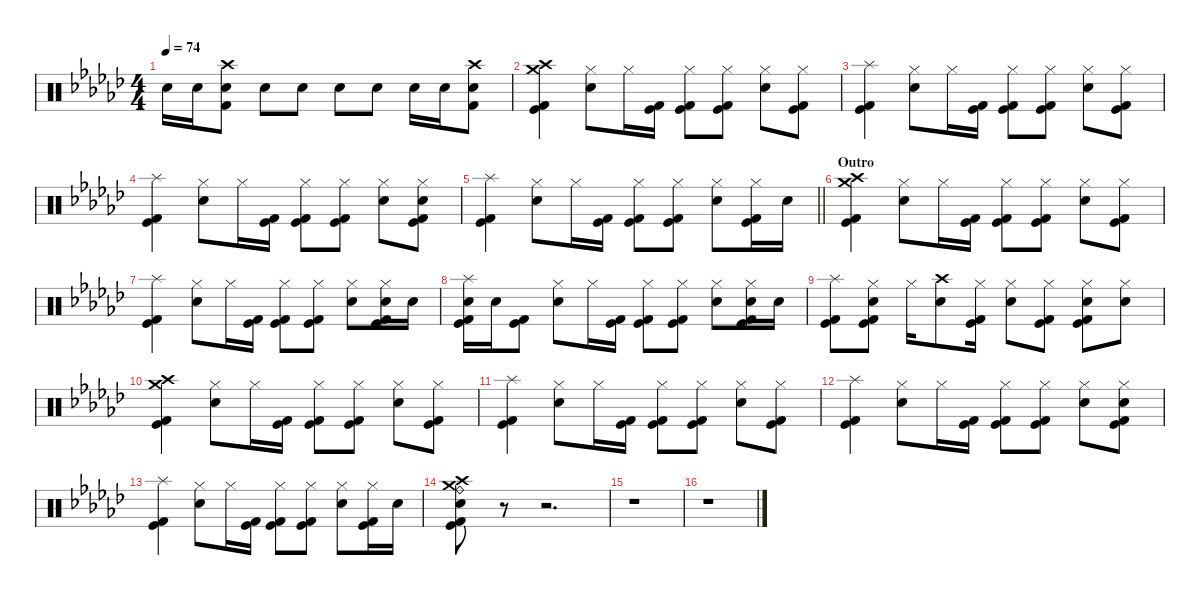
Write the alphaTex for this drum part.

\defaultSystemsLayout 4
\hideDynamics
\bracketExtendMode nobrackets
\singleTrackTrackNamePolicy hidden
\multiTrackTrackNamePolicy hidden
\firstSystemTrackNameMode fullname
\firstSystemTrackNameOrientation horizontal
\otherSystemsTrackNameOrientation horizontal
\track ("Drums, Ulrich" "drm.") {defaultSystemsLayout 4 instrument percussion}
\staff {score}
\articulation defaults
\ts (4 4)
\tempo 74
\clef neutral
\ks ebminor "Snare (hit) 2"{acc forcenatural}.16{dy f beam Down} "Snare (hit) 2"{acc forcenatural}.16{beam Down}
("Crash high (hit)"{acc forcenatural} "Kick (hit) 2"{acc forcenatural} "Snare (hit) 2"{acc forcenatural}).8{beam Down} "Snare (hit) 2"{acc forcenatural}.8{beam Down} "Snare (hit) 2"{acc forcenatural}.8{beam Down} "Snare (hit) 2"{acc forcenatural}.8{beam Down} "Snare (hit) 2"{acc forcenatural}.8{beam Down} "Snare (hit) 2"{acc forcenatural}.16{beam Down} "Snare (hit) 2"{acc forcenatural}.16{beam Down} ("Crash high (hit)"{acc forcenatural} "Kick (hit) 2"{acc forcenatural} "Snare (hit) 2"{acc forcenatural}).8{beam Down} |
("Crash medium (hit)"{acc forcenatural} "Crash high (hit)"{acc forcenatural} "Kick (hit) 2"{acc forcenatural} "Kick (hit)"{acc forcenatural}).4{beam Down} ("Hi-Hat (closed)"{acc forcenatural} "Snare (hit) 2"{acc forcenatural}).8{beam Down} "Hi-Hat (closed)"{acc forcenatural}.16{beam Down} ("Kick (hit) 2"{acc forcenatural} "Kick (hit)"{acc forcenatural}).16{beam Down} ("Hi-Hat (closed)"{acc forcenatural} "Kick (hit) 2"{acc forcenatural} "Kick (hit)"{acc forcenatural}).8{beam Down} ("Hi-Hat (closed)"{acc forcenatural} "Kick (hit)"{acc forcenatural} "Kick (hit) 2"{acc forcenatural}).8{beam Down} ("Hi-Hat (closed)"{acc forcenatural} "Snare (hit) 2"{acc forcenatural}).8{beam Down} ("Hi-Hat (closed)"{acc forcenatural} "Kick (hit) 2"{acc forcenatural} "Kick (hit)"{acc forcenatural}).8{beam Down} |
("Splash (hit)"{acc forcenatural} "Kick (hit) 2"{acc forcenatural} "Kick (hit)"{acc forcenatural}).4{beam Down} ("Hi-Hat (closed)"{acc forcenatural} "Snare (hit) 2"{acc forcenatural}).8{beam Down} "Hi-Hat (closed)"{acc forcenatural}.16{beam Down} ("Kick (hit) 2"{acc forcenatural} "Kick (hit)"{acc forcenatural}).16{beam Down} ("Hi-Hat (closed)"{acc forcenatural} "Kick (hit) 2"{acc forcenatural} "Kick (hit)"{acc forcenatural}).8{beam Down} ("Hi-Hat (closed)"{acc forcenatural} "Kick (hit)"{acc forcenatural} "Kick (hit) 2"{acc forcenatural}).8{beam Down} ("Hi-Hat (closed)"{acc forcenatural} "Snare (hit) 2"{acc forcenatural}).8{beam Down} ("Hi-Hat (closed)"{acc forcenatural} "Kick (hit) 2"{acc forcenatural} "Kick (hit)"{acc forcenatural}).8{beam Down} |
("Splash (hit)"{acc forcenatural} "Kick (hit) 2"{acc forcenatural} "Kick (hit)"{acc forcenatural}).4{beam Down} ("Hi-Hat (closed)"{acc forcenatural} "Snare (hit) 2"{acc forcenatural}).8{beam Down} "Hi-Hat (closed)"{acc forcenatural}.16{beam Down} ("Kick (hit) 2"{acc forcenatural} "Kick (hit)"{acc forcenatural}).16{beam Down} ("Hi-Hat (closed)"{acc forcenatural} "Kick (hit) 2"{acc forcenatural} "Kick (hit)"{acc forcenatural}).8{beam Down} ("Hi-Hat (closed)"{acc forcenatural} "Kick (hit)"{acc forcenatural} "Kick (hit) 2"{acc forcenatural}).8{beam Down} ("Hi-Hat (closed)"{acc forcenatural} "Snare (hit) 2"{acc forcenatural}).8{beam Down} ("Hi-Hat (closed)"{acc forcenatural} "Snare (hit) 2"{acc forcenatural} "Kick (hit) 2"{acc forcenatural} "Kick (hit)"{acc forcenatural}).8{beam Down} |
\barLineRight lightlight
("Splash (hit)"{acc forcenatural} "Kick (hit) 2"{acc forcenatural} "Kick (hit)"{acc forcenatural}).4{beam Down} ("Hi-Hat (closed)"{acc forcenatural} "Snare (hit) 2"{acc forcenatural}).8{beam Down} "Hi-Hat (closed)"{acc forcenatural}.16{beam Down} ("Kick (hit) 2"{acc forcenatural} "Kick (hit)"{acc forcenatural}).16{beam Down} ("Hi-Hat (closed)"{acc forcenatural} "Kick (hit) 2"{acc forcenatural} "Kick (hit)"{acc forcenatural}).8{beam Down} ("Hi-Hat (closed)"{acc forcenatural} "Kick (hit)"{acc forcenatural} "Kick (hit) 2"{acc forcenatural}).8{beam Down} ("Hi-Hat (closed)"{acc forcenatural} "Snare (hit) 2"{acc forcenatural}).8{beam Down} ("Hi-Hat (closed)"{acc forcenatural} "Kick (hit) 2"{acc forcenatural} "Kick (hit)"{acc forcenatural}).16{beam Down} "Snare (hit) 2"{acc forcenatural}.16{beam Down} |
\section ("" "Outro")
("Crash medium (hit)"{acc forcenatural} "Crash high (hit)"{acc forcenatural} "Kick (hit) 2"{acc forcenatural} "Kick (hit)"{acc forcenatural}).4{beam Down} ("Hi-Hat (closed)"{acc forcenatural} "Snare (hit) 2"{acc forcenatural}).8{beam Down} "Hi-Hat (closed)"{acc forcenatural}.16{beam Down} ("Kick (hit) 2"{acc forcenatural} "Kick (hit)"{acc forcenatural}).16{beam Down} ("Hi-Hat (closed)"{acc forcenatural} "Kick (hit) 2"{acc forcenatural} "Kick (hit)"{acc forcenatural}).8{beam Down} ("Hi-Hat (closed)"{acc forcenatural} "Kick (hit)"{acc forcenatural} "Kick (hit) 2"{acc forcenatural}).8{beam Down} ("Hi-Hat (closed)"{acc forcenatural} "Snare (hit) 2"{acc forcenatural}).8{beam Down} ("Hi-Hat (closed)"{acc forcenatural} "Kick (hit) 2"{acc forcenatural} "Kick (hit)"{acc forcenatural}).8{beam Down} |
("Splash (hit)"{acc forcenatural} "Kick (hit) 2"{acc forcenatural} "Kick (hit)"{acc forcenatural}).4{beam Down} ("Hi-Hat (closed)"{acc forcenatural} "Snare (hit) 2"{acc forcenatural}).8{beam Down} "Hi-Hat (closed)"{acc forcenatural}.16{beam Down} ("Kick (hit) 2"{acc forcenatural} "Kick (hit)"{acc forcenatural}).16{beam Down} ("Hi-Hat (closed)"{acc forcenatural} "Kick (hit) 2"{acc forcenatural} "Kick (hit)"{acc forcenatural}).8{beam Down} ("Hi-Hat (closed)"{acc forcenatural} "Kick (hit)"{acc forcenatural} "Kick (hit) 2"{acc forcenatural}).8{beam Down} ("Hi-Hat (closed)"{acc forcenatural} "Snare (hit) 2"{acc forcenatural}).8{beam Down} ("Hi-Hat (closed)"{acc forcenatural} "Snare (hit) 2"{acc forcenatural} "Kick (hit) 2"{acc forcenatural} "Kick (hit)"{acc forcenatural}).16{beam Down} "Snare (hit) 2"{acc forcenatural}.16{beam Down} |
("Splash (hit)"{acc forcenatural} "Snare (hit) 2"{acc forcenatural} "Kick (hit) 2"{acc forcenatural} "Kick (hit)"{acc forcenatural}).16{beam Down} "Snare (hit) 2"{acc forcenatural}.16{beam Down} ("Kick (hit) 2"{acc forcenatural} "Kick (hit)"{acc forcenatural}).8{beam Down} ("Hi-Hat (closed)"{acc forcenatural} "Snare (hit) 2"{acc forcenatural}).8{beam Down} "Hi-Hat (closed)"{acc forcenatural}.16{beam Down} ("Kick (hit) 2"{acc forcenatural} "Kick (hit)"{acc forcenatural}).16{beam Down} ("Hi-Hat (closed)"{acc forcenatural} "Kick (hit) 2"{acc forcenatural} "Kick (hit)"{acc forcenatural}).8{beam Down} ("Hi-Hat (closed)"{acc forcenatural} "Kick (hit)"{acc forcenatural} "Kick (hit) 2"{acc forcenatural}).8{beam Down} ("Hi-Hat (closed)"{acc forcenatural} "Snare (hit) 2"{acc forcenatural}).8{beam Down} ("Hi-Hat (closed)"{acc forcenatural} "Snare (hit) 2"{acc forcenatural} "Kick (hit) 2"{acc forcenatural} "Kick (hit)"{acc forcenatural}).16{beam Down} "Snare (hit) 2"{acc forcenatural}.16{beam Down} |
("Splash (hit)"{acc forcenatural} "Kick (hit) 2"{acc forcenatural} "Kick (hit)"{acc forcenatural}).8{beam Down} ("Hi-Hat (closed)"{acc forcenatural} "Snare (hit) 2"{acc forcenatural} "Kick (hit) 2"{acc forcenatural} "Kick (hit)"{acc forcenatural}).8{beam Down} "Hi-Hat (closed)"{acc forcenatural}.16{beam Down} ("Crash high (hit)"{acc forcenatural} "Snare (hit) 2"{acc forcenatural}).8{beam Down} ("Hi-Hat (closed)"{acc forcenatural} "Kick (hit)"{acc forcenatural} "Kick (hit) 2"{acc forcenatural}).16{beam Down} ("Hi-Hat (closed)"{acc forcenatural} "Snare (hit) 2"{acc forcenatural}).8{beam Down} ("Hi-Hat (closed)"{acc forcenatural} "Kick (hit) 2"{acc forcenatural} "Kick (hit)"{acc forcenatural}).8{beam Down} ("Hi-Hat (closed)"{acc forcenatural} "Snare (hit) 2"{acc forcenatural} "Kick (hit)"{acc forcenatural} "Kick (hit) 2"{acc forcenatural}).8{beam Down} ("Hi-Hat (closed)"{acc forcenatural} "Snare (hit) 2"{acc forcenatural}).8{beam Down} |
("Crash medium (hit)"{acc forcenatural} "Crash high (hit)"{acc forcenatural} "Kick (hit) 2"{acc forcenatural} "Kick (hit)"{acc forcenatural}).4{beam Down} ("Hi-Hat (closed)"{acc forcenatural} "Snare (hit) 2"{acc forcenatural}).8{beam Down} "Hi-Hat (closed)"{acc forcenatural}.16{beam Down} ("Kick (hit) 2"{acc forcenatural} "Kick (hit)"{acc forcenatural}).16{beam Down} ("Hi-Hat (closed)"{acc forcenatural} "Kick (hit) 2"{acc forcenatural} "Kick (hit)"{acc forcenatural}).8{beam Down} ("Hi-Hat (closed)"{acc forcenatural} "Kick (hit)"{acc forcenatural} "Kick (hit) 2"{acc forcenatural}).8{beam Down} ("Hi-Hat (closed)"{acc forcenatural} "Snare (hit) 2"{acc forcenatural}).8{beam Down} ("Hi-Hat (closed)"{acc forcenatural} "Kick (hit) 2"{acc forcenatural} "Kick (hit)"{acc forcenatural}).8{beam Down} |
("Splash (hit)"{acc forcenatural} "Kick (hit) 2"{acc forcenatural} "Kick (hit)"{acc forcenatural}).4{beam Down} ("Hi-Hat (closed)"{acc forcenatural} "Snare (hit) 2"{acc forcenatural}).8{beam Down} "Hi-Hat (closed)"{acc forcenatural}.16{beam Down} ("Kick (hit) 2"{acc forcenatural} "Kick (hit)"{acc forcenatural}).16{beam Down} ("Hi-Hat (closed)"{acc forcenatural} "Kick (hit) 2"{acc forcenatural} "Kick (hit)"{acc forcenatural}).8{beam Down} ("Hi-Hat (closed)"{acc forcenatural} "Kick (hit)"{acc forcenatural} "Kick (hit) 2"{acc forcenatural}).8{beam Down} ("Hi-Hat (closed)"{acc forcenatural} "Snare (hit) 2"{acc forcenatural}).8{beam Down} ("Hi-Hat (closed)"{acc forcenatural} "Kick (hit) 2"{acc forcenatural} "Kick (hit)"{acc forcenatural}).8{beam Down} |
("Splash (hit)"{acc forcenatural} "Kick (hit) 2"{acc forcenatural} "Kick (hit)"{acc forcenatural}).4{beam Down} ("Hi-Hat (closed)"{acc forcenatural} "Snare (hit) 2"{acc forcenatural}).8{beam Down} "Hi-Hat (closed)"{acc forcenatural}.16{beam Down} ("Kick (hit) 2"{acc forcenatural} "Kick (hit)"{acc forcenatural}).16{beam Down} ("Hi-Hat (closed)"{acc forcenatural} "Kick (hit) 2"{acc forcenatural} "Kick (hit)"{acc forcenatural}).8{beam Down} ("Hi-Hat (closed)"{acc forcenatural} "Kick (hit)"{acc forcenatural} "Kick (hit) 2"{acc forcenatural}).8{beam Down} ("Hi-Hat (closed)"{acc forcenatural} "Snare (hit) 2"{acc forcenatural}).8{beam Down} ("Hi-Hat (closed)"{acc forcenatural} "Snare (hit) 2"{acc forcenatural} "Kick (hit) 2"{acc forcenatural} "Kick (hit)"{acc forcenatural}).8{beam Down} |
("Splash (hit)"{acc forcenatural} "Kick (hit) 2"{acc forcenatural} "Kick (hit)"{acc forcenatural}).4{beam Down} ("Hi-Hat (closed)"{acc forcenatural} "Snare (hit) 2"{acc forcenatural}).8{beam Down} "Hi-Hat (closed)"{acc forcenatural}.16{beam Down} ("Kick (hit) 2"{acc forcenatural} "Kick (hit)"{acc forcenatural}).16{beam Down} ("Hi-Hat (closed)"{acc forcenatural} "Kick (hit) 2"{acc forcenatural} "Kick (hit)"{acc forcenatural}).8{beam Down} ("Hi-Hat (closed)"{acc forcenatural} "Kick (hit)"{acc forcenatural} "Kick (hit) 2"{acc forcenatural}).8{beam Down} ("Hi-Hat (closed)"{acc forcenatural} "Snare (hit) 2"{acc forcenatural}).8{beam Down} ("Hi-Hat (closed)"{acc forcenatural} "Kick (hit) 2"{acc forcenatural} "Kick (hit)"{acc forcenatural}).16{beam Down} "Snare (hit) 2"{acc forcenatural}.16{beam Down} |
("Crash high (hit)"{acc forcenatural} "Crash medium (hit)"{acc forcenatural} "Snare (hit) 2"{acc forcenatural} "Ride (bell)"{acc forcenatural} "Kick (hit) 2"{acc forcenatural} "Kick (hit)"{acc forcenatural}).8{dy mf beam Down} r.8{beam Down} r.2{d beam Down} |
r.1{beam Down} |
r.1{beam Down}
